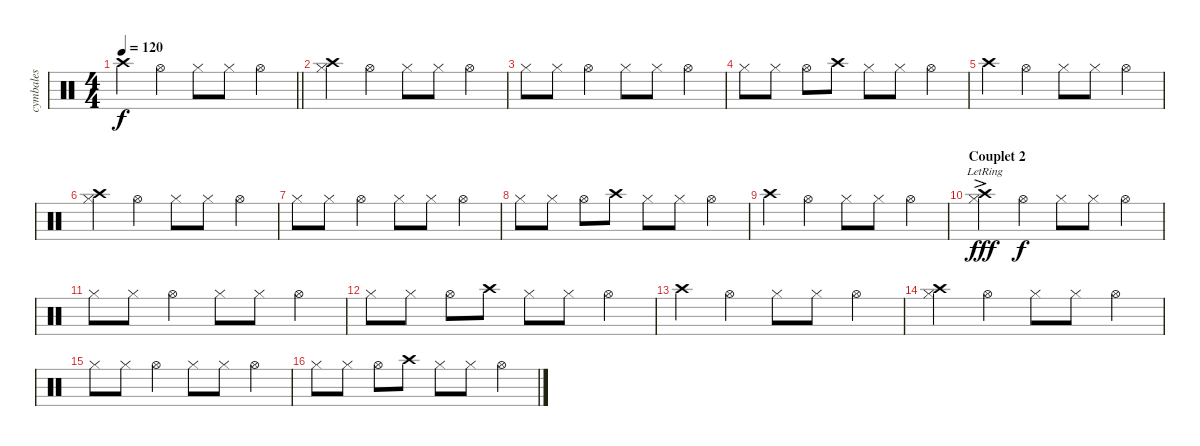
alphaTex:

\track ("cymbales" "cymbales") {instrument percussion}
\staff {score}
\articulation defaults
\ts (4 4)
\tempo 120
\clef neutral
\barLineRight lightlight
\ks c "Crash high (hit)".4{dy f} "Hi-Hat (open)".4 "Hi-Hat (closed)".8 "Hi-Hat (closed)".8 "Hi-Hat (open)".4
|
("Crash high (hit)" "Hi-Hat (closed)").4 "Hi-Hat (open)".4 "Hi-Hat (closed)".8 "Hi-Hat (closed)".8 "Hi-Hat (open)".4 |
"Hi-Hat (closed)".8 "Hi-Hat (closed)".8 "Hi-Hat (open)".4 "Hi-Hat (closed)".8 "Hi-Hat (closed)".8 "Hi-Hat (open)".4 |
"Hi-Hat (closed)".8 "Hi-Hat (closed)".8 "Hi-Hat (open)".8 "Crash high (hit)".8 "Hi-Hat (closed)".8 "Hi-Hat (closed)".8 "Hi-Hat (open)".4 |
"Crash high (hit)".4 "Hi-Hat (open)".4 "Hi-Hat (closed)".8 "Hi-Hat (closed)".8 "Hi-Hat (open)".4 |
("Crash high (hit)" "Hi-Hat (closed)").4 "Hi-Hat (open)".4 "Hi-Hat (closed)".8 "Hi-Hat (closed)".8 "Hi-Hat (open)".4 |
"Hi-Hat (closed)".8 "Hi-Hat (closed)".8 "Hi-Hat (open)".4 "Hi-Hat (closed)".8 "Hi-Hat (closed)".8 "Hi-Hat (open)".4 |
"Hi-Hat (closed)".8 "Hi-Hat (closed)".8 "Hi-Hat (open)".8 "Crash high (hit)".8 "Hi-Hat (closed)".8 "Hi-Hat (closed)".8 "Hi-Hat (open)".4 |
"Crash high (hit)".4 "Hi-Hat (open)".4 "Hi-Hat (closed)".8 "Hi-Hat (closed)".8 "Hi-Hat (open)".4 |
\section ("" "Couplet 2")
("Crash high (hit)"{ac lr} "Hi-Hat (closed)").4{dy fff} "Hi-Hat (open)".4{dy f} "Hi-Hat (closed)".8 "Hi-Hat (closed)".8 "Hi-Hat (open)".4 |
"Hi-Hat (closed)".8 "Hi-Hat (closed)".8 "Hi-Hat (open)".4 "Hi-Hat (closed)".8 "Hi-Hat (closed)".8 "Hi-Hat (open)".4 |
"Hi-Hat (closed)".8 "Hi-Hat (closed)".8 "Hi-Hat (open)".8 "Crash high (hit)".8 "Hi-Hat (closed)".8 "Hi-Hat (closed)".8 "Hi-Hat (open)".4 |
"Crash high (hit)".4 "Hi-Hat (open)".4 "Hi-Hat (closed)".8 "Hi-Hat (closed)".8 "Hi-Hat (open)".4 |
("Crash high (hit)" "Hi-Hat (closed)").4 "Hi-Hat (open)".4 "Hi-Hat (closed)".8 "Hi-Hat (closed)".8 "Hi-Hat (open)".4 |
"Hi-Hat (closed)".8 "Hi-Hat (closed)".8 "Hi-Hat (open)".4 "Hi-Hat (closed)".8 "Hi-Hat (closed)".8 "Hi-Hat (open)".4 |
"Hi-Hat (closed)".8 "Hi-Hat (closed)".8 "Hi-Hat (open)".8 "Crash high (hit)".8 "Hi-Hat (closed)".8 "Hi-Hat (closed)".8 "Hi-Hat (open)".4
